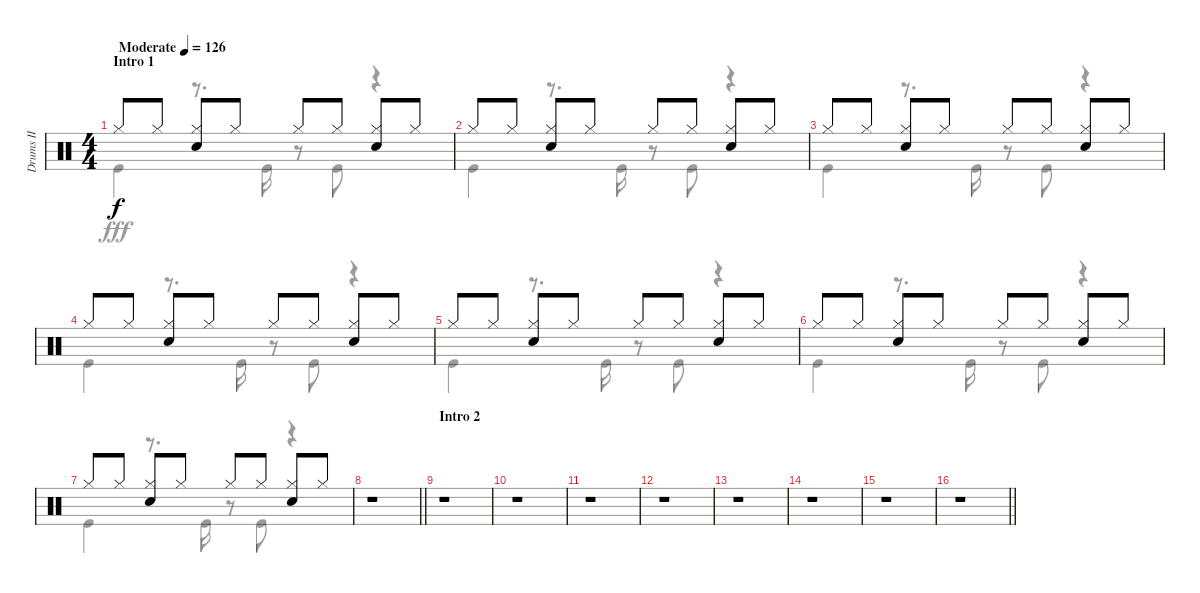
\track ("Drums II" "Drums II") {instrument percussion}
\staff {score}
\articulation defaults
\voice
\ts (4 4)
\section ("" "Intro 1")
\tempo (126 "Moderate")
\clef neutral
\ks c "Hi-Hat (closed)".8{dy f} "Hi-Hat (closed)".8
("Hi-Hat (closed)" "Snare (hit) 2").8 "Hi-Hat (closed)".8 "Hi-Hat (closed)".8 "Hi-Hat (closed)".8 ("Hi-Hat (closed)" "Snare (hit) 2").8 "Hi-Hat (closed)".8 |
"Hi-Hat (closed)".8 "Hi-Hat (closed)".8 ("Hi-Hat (closed)" "Snare (hit) 2").8 "Hi-Hat (closed)".8 "Hi-Hat (closed)".8 "Hi-Hat (closed)".8 ("Hi-Hat (closed)" "Snare (hit) 2").8 "Hi-Hat (closed)".8 |
"Hi-Hat (closed)".8 "Hi-Hat (closed)".8 ("Hi-Hat (closed)" "Snare (hit) 2").8 "Hi-Hat (closed)".8 "Hi-Hat (closed)".8 "Hi-Hat (closed)".8 ("Hi-Hat (closed)" "Snare (hit) 2").8 "Hi-Hat (closed)".8 |
"Hi-Hat (closed)".8 "Hi-Hat (closed)".8 ("Hi-Hat (closed)" "Snare (hit) 2").8 "Hi-Hat (closed)".8 "Hi-Hat (closed)".8 "Hi-Hat (closed)".8 ("Hi-Hat (closed)" "Snare (hit) 2").8 "Hi-Hat (closed)".8 |
"Hi-Hat (closed)".8 "Hi-Hat (closed)".8 ("Hi-Hat (closed)" "Snare (hit) 2").8 "Hi-Hat (closed)".8 "Hi-Hat (closed)".8 "Hi-Hat (closed)".8 ("Hi-Hat (closed)" "Snare (hit) 2").8 "Hi-Hat (closed)".8 |
"Hi-Hat (closed)".8 "Hi-Hat (closed)".8 ("Hi-Hat (closed)" "Snare (hit) 2").8 "Hi-Hat (closed)".8 "Hi-Hat (closed)".8 "Hi-Hat (closed)".8 ("Hi-Hat (closed)" "Snare (hit) 2").8 "Hi-Hat (closed)".8 |
"Hi-Hat (closed)".8 "Hi-Hat (closed)".8 ("Hi-Hat (closed)" "Snare (hit) 2").8 "Hi-Hat (closed)".8 "Hi-Hat (closed)".8 "Hi-Hat (closed)".8 ("Hi-Hat (closed)" "Snare (hit) 2").8 "Hi-Hat (closed)".8 |
\barLineRight lightlight
r.1 |
\section ("" "Intro 2")
r.1 |
r.1 |
r.1 |
r.1 |
r.1 |
r.1 |
r.1 |
\barLineRight lightlight
r.1
\voice
\clef neutral
\ottava regular
\simile none
\ks c "Kick (hit)".4{dy fff}
r.8{d} "Kick (hit)".16 r.8 "Kick (hit)".8 r.4 |
"Kick (hit)".4 r.8{d} "Kick (hit)".16 r.8 "Kick (hit)".8 r.4 |
"Kick (hit)".4 r.8{d} "Kick (hit)".16 r.8 "Kick (hit)".8 r.4 |
"Kick (hit)".4 r.8{d} "Kick (hit)".16 r.8 "Kick (hit)".8 r.4 |
"Kick (hit)".4 r.8{d} "Kick (hit)".16 r.8 "Kick (hit)".8 r.4 |
"Kick (hit)".4 r.8{d} "Kick (hit)".16 r.8 "Kick (hit)".8 r.4 |
"Kick (hit)".4 r.8{d} "Kick (hit)".16 r.8 "Kick (hit)".8 r.4 |
\barLineRight lightlight
r.1 |
r.1 |
r.1 |
r.1 |
r.1 |
r.1 |
r.1 |
r.1 |
\barLineRight lightlight
r.1
